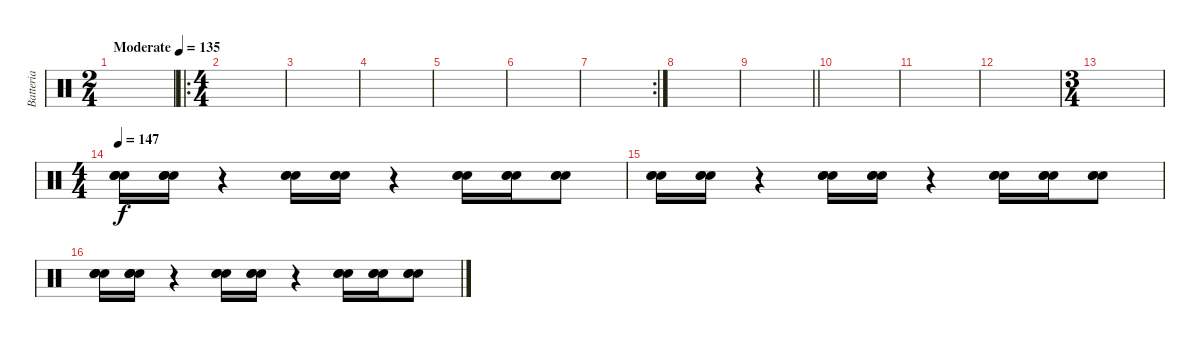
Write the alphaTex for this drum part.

\track ("Batteria" "Batteria") {instrument percussion}
\staff {score}
\articulation defaults
\ts (2 4)
\tempo (135 "Moderate")
\clef neutral
\ks c
|
\ro
\ts (4 4)
|
|
|
|
|
\rc 2
|
|
\barLineRight lightlight
|
|
|
|
\ts (3 4)
|
\ts (4 4)
\tempo 147
("Electric Snare (hit)" "Electric Snare (hit)" "Electric Snare (hit)" "Electric Snare (hit)").16 ("Electric Snare (hit)" "Electric Snare (hit)" "Electric Snare (hit)" "Electric Snare (hit)").16 r.4 ("Electric Snare (hit)" "Electric Snare (hit)" "Electric Snare (hit)").16 ("Electric Snare (hit)" "Electric Snare (hit)" "Electric Snare (hit)").16 r.4 ("Electric Snare (hit)" "Electric Snare (hit)" "Electric Snare (hit)").16 ("Electric Snare (hit)" "Electric Snare (hit)" "Electric Snare (hit)").16 ("Electric Snare (hit)" "Electric Snare (hit)" "Electric Snare (hit)").8 |
("Electric Snare (hit)" "Electric Snare (hit)" "Electric Snare (hit)").16 ("Electric Snare (hit)" "Electric Snare (hit)" "Electric Snare (hit)").16 r.4 ("Electric Snare (hit)" "Electric Snare (hit)" "Electric Snare (hit)").16 ("Electric Snare (hit)" "Electric Snare (hit)" "Electric Snare (hit)").16 r.4 ("Electric Snare (hit)" "Electric Snare (hit)" "Electric Snare (hit)").16 ("Electric Snare (hit)" "Electric Snare (hit)" "Electric Snare (hit)").16 ("Electric Snare (hit)" "Electric Snare (hit)" "Electric Snare (hit)").8 |
("Electric Snare (hit)" "Electric Snare (hit)" "Electric Snare (hit)" "Electric Snare (hit)").16 ("Electric Snare (hit)" "Electric Snare (hit)" "Electric Snare (hit)" "Electric Snare (hit)").16 r.4 ("Electric Snare (hit)" "Electric Snare (hit)" "Electric Snare (hit)").16 ("Electric Snare (hit)" "Electric Snare (hit)" "Electric Snare (hit)").16 r.4 ("Electric Snare (hit)" "Electric Snare (hit)" "Electric Snare (hit)").16 ("Electric Snare (hit)" "Electric Snare (hit)" "Electric Snare (hit)").16 ("Electric Snare (hit)" "Electric Snare (hit)" "Electric Snare (hit)").8
